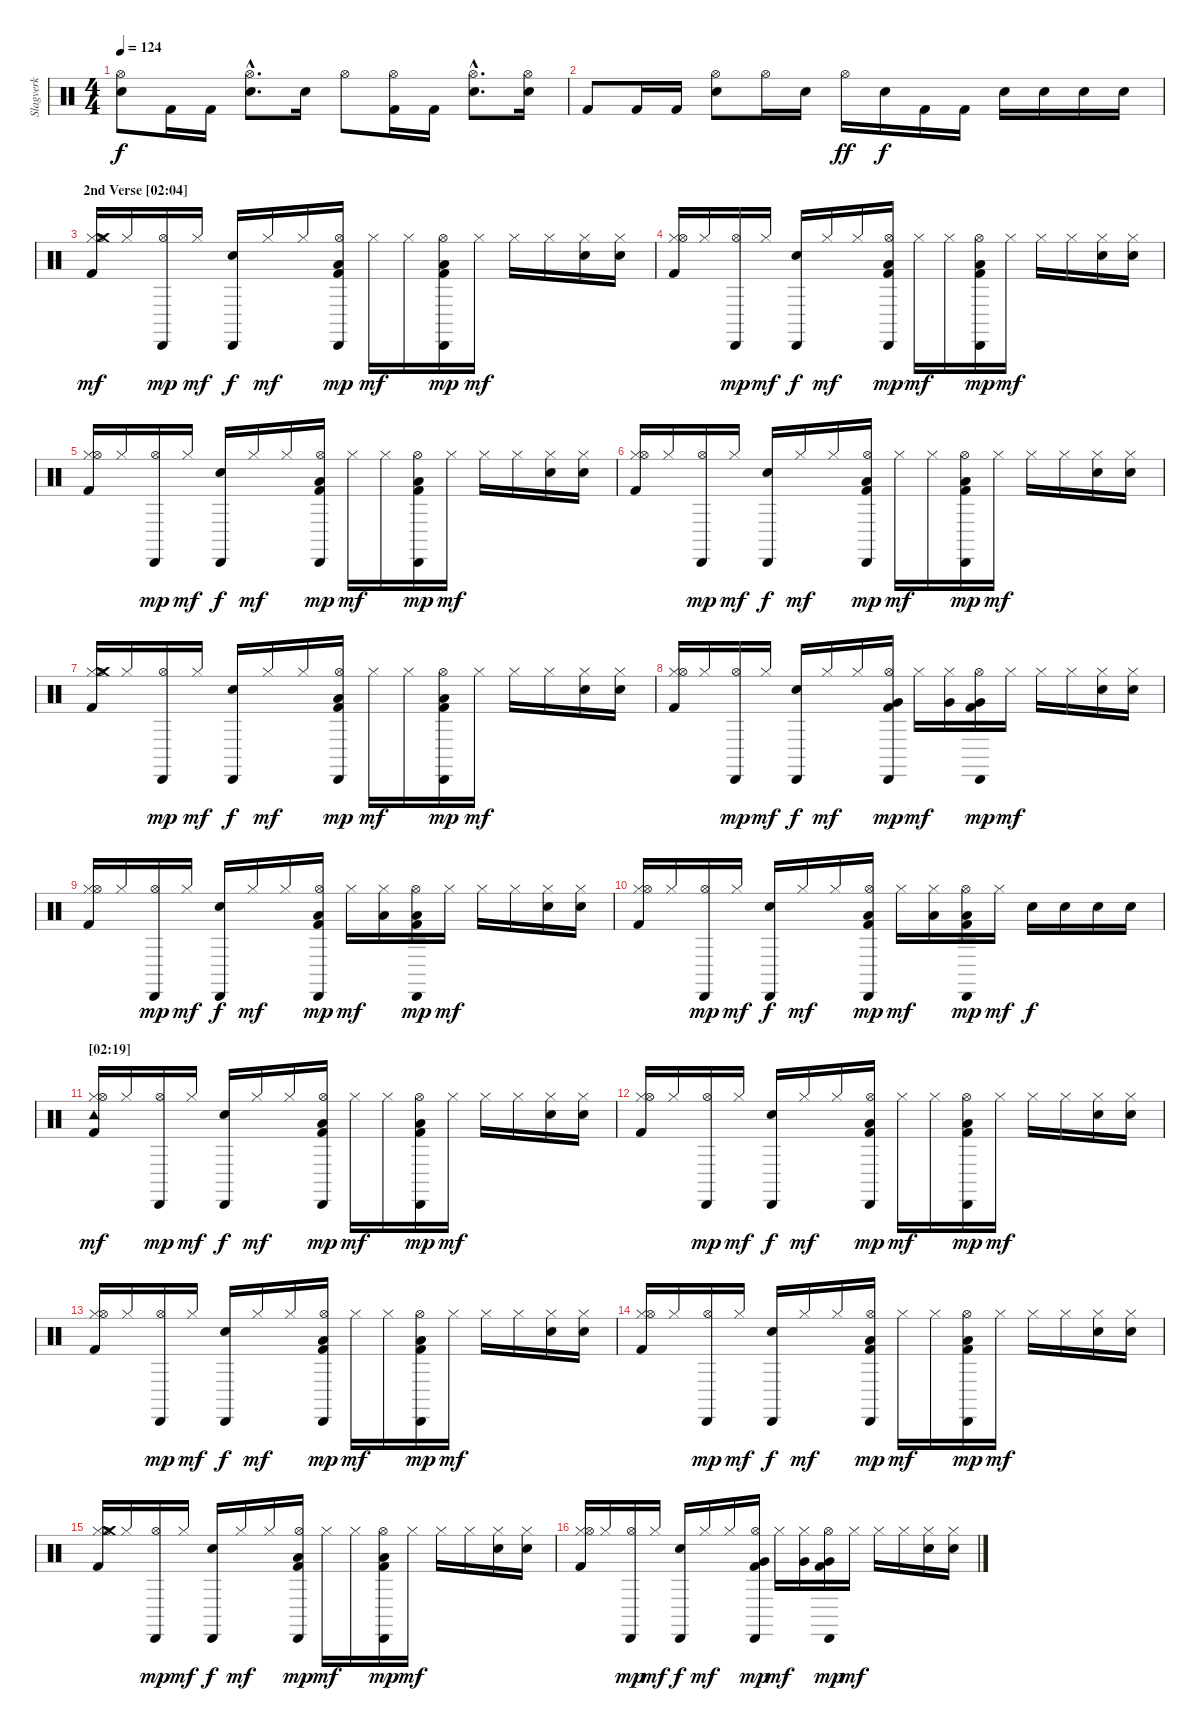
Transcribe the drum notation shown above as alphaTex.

\track ("Slagverk" "Slagverk") {instrument percussion}
\staff {score}
\articulation defaults
\ts (4 4)
\tempo 124
\clef neutral
\ks c
("Hi-Hat (open)" "Electric Snare (hit)").8{dy f} "Kick (hit) 2".16 "Kick (hit) 2".16 ("Hi-Hat (open)"{hac} "Electric Snare (hit)"{hac}).8{d} "Electric Snare (hit)".16 "Hi-Hat (open)".8 ("Hi-Hat (open)" "Kick (hit) 2").16 "Kick (hit) 2".16 ("Hi-Hat (open)"{hac} "Electric Snare (hit)"{hac}).8{d} ("Hi-Hat (open)" "Electric Snare (hit)").16 |
"Kick (hit) 2".8 "Kick (hit) 2".16 "Kick (hit) 2".16 ("Hi-Hat (open)" "Electric Snare (hit)").8 "Hi-Hat (open)".16 "Electric Snare (hit)".16 "Hi-Hat (open)".16{dy ff} "Electric Snare (hit)".16{dy f} "Kick (hit) 2".16 "Kick (hit) 2".16 "Electric Snare (hit)".16 "Electric Snare (hit)".16 "Electric Snare (hit)".16 "Electric Snare (hit)".16 |
\section ("" "2nd Verse [02:04]")
("Hi-Hat (closed)" "Crash medium (hit)" "Hi-Hat (open)" "Kick (hit) 2").16{dy mf} "Hi-Hat (closed)".16 ("Cabasa (hit)" "Hi-Hat (open)").16{dy mp} "Hi-Hat (closed)".16{dy mf} ("Cabasa (hit)" "Electric Snare (hit)").16{dy f} "Hi-Hat (closed)".16{dy mf} "Hi-Hat (closed)".16 ("Cabasa (hit)" "Hi-Hat (open)" "Kick (hit) 2" "Low Floor Tom (hit)").16{dy mp} "Hi-Hat (closed)".16{dy mf} "Hi-Hat (closed)".16 ("Cabasa (hit)" "Hi-Hat (open)" "Kick (hit) 2" "Low Floor Tom (hit)").16{dy mp} "Hi-Hat (closed)".16{dy mf} "Hi-Hat (closed)".16 "Hi-Hat (closed)".16 ("Hi-Hat (closed)" "Electric Snare (hit)").16 ("Hi-Hat (closed)" "Electric Snare (hit)").16 |
("Hi-Hat (closed)" "Hi-Hat (open)" "Kick (hit) 2").16 "Hi-Hat (closed)".16 ("Cabasa (hit)" "Hi-Hat (open)").16{dy mp} "Hi-Hat (closed)".16{dy mf} ("Cabasa (hit)" "Electric Snare (hit)").16{dy f} "Hi-Hat (closed)".16{dy mf} "Hi-Hat (closed)".16 ("Cabasa (hit)" "Hi-Hat (open)" "Kick (hit) 2" "Low Floor Tom (hit)").16{dy mp} "Hi-Hat (closed)".16{dy mf} "Hi-Hat (closed)".16 ("Cabasa (hit)" "Hi-Hat (open)" "Kick (hit) 2" "Low Floor Tom (hit)").16{dy mp} "Hi-Hat (closed)".16{dy mf} "Hi-Hat (closed)".16 "Hi-Hat (closed)".16 ("Hi-Hat (closed)" "Electric Snare (hit)").16 ("Hi-Hat (closed)" "Electric Snare (hit)").16 |
("Hi-Hat (closed)" "Hi-Hat (open)" "Kick (hit) 2").16 "Hi-Hat (closed)".16 ("Cabasa (hit)" "Hi-Hat (open)").16{dy mp} "Hi-Hat (closed)".16{dy mf} ("Cabasa (hit)" "Electric Snare (hit)").16{dy f} "Hi-Hat (closed)".16{dy mf} "Hi-Hat (closed)".16 ("Cabasa (hit)" "Hi-Hat (open)" "Kick (hit) 2" "Low Floor Tom (hit)").16{dy mp} "Hi-Hat (closed)".16{dy mf} "Hi-Hat (closed)".16 ("Cabasa (hit)" "Hi-Hat (open)" "Kick (hit) 2" "Low Floor Tom (hit)").16{dy mp} "Hi-Hat (closed)".16{dy mf} "Hi-Hat (closed)".16 "Hi-Hat (closed)".16 ("Hi-Hat (closed)" "Electric Snare (hit)").16 ("Hi-Hat (closed)" "Electric Snare (hit)").16 |
("Hi-Hat (closed)" "Hi-Hat (open)" "Kick (hit) 2").16 "Hi-Hat (closed)".16 ("Cabasa (hit)" "Hi-Hat (open)").16{dy mp} "Hi-Hat (closed)".16{dy mf} ("Cabasa (hit)" "Electric Snare (hit)").16{dy f} "Hi-Hat (closed)".16{dy mf} "Hi-Hat (closed)".16 ("Cabasa (hit)" "Hi-Hat (open)" "Kick (hit) 2" "Low Floor Tom (hit)").16{dy mp} "Hi-Hat (closed)".16{dy mf} "Hi-Hat (closed)".16 ("Cabasa (hit)" "Hi-Hat (open)" "Kick (hit) 2" "Low Floor Tom (hit)").16{dy mp} "Hi-Hat (closed)".16{dy mf} "Hi-Hat (closed)".16 "Hi-Hat (closed)".16 ("Hi-Hat (closed)" "Electric Snare (hit)").16 ("Hi-Hat (closed)" "Electric Snare (hit)").16 |
("Hi-Hat (closed)" "Crash medium (hit)" "Hi-Hat (open)" "Kick (hit) 2").16 "Hi-Hat (closed)".16 ("Cabasa (hit)" "Hi-Hat (open)").16{dy mp} "Hi-Hat (closed)".16{dy mf} ("Cabasa (hit)" "Electric Snare (hit)").16{dy f} "Hi-Hat (closed)".16{dy mf} "Hi-Hat (closed)".16 ("Cabasa (hit)" "Hi-Hat (open)" "Kick (hit) 2" "Low Floor Tom (hit)").16{dy mp} "Hi-Hat (closed)".16{dy mf} "Hi-Hat (closed)".16 ("Cabasa (hit)" "Hi-Hat (open)" "Kick (hit) 2" "Low Floor Tom (hit)").16{dy mp} "Hi-Hat (closed)".16{dy mf} "Hi-Hat (closed)".16 "Hi-Hat (closed)".16 ("Hi-Hat (closed)" "Electric Snare (hit)").16 ("Hi-Hat (closed)" "Electric Snare (hit)").16 |
("Hi-Hat (closed)" "Hi-Hat (open)" "Kick (hit) 2").16 "Hi-Hat (closed)".16 ("Cabasa (hit)" "Hi-Hat (open)").16{dy mp} "Hi-Hat (closed)".16{dy mf} ("Cabasa (hit)" "Electric Snare (hit)").16{dy f} "Hi-Hat (closed)".16{dy mf} "Hi-Hat (closed)".16 ("Cabasa (hit)" "Hi-Hat (open)" "Kick (hit) 2" "Very Low Tom (hit)").16{dy mp} "Hi-Hat (closed)".16{dy mf} ("Hi-Hat (closed)" "Very Low Tom (hit)").16 ("Cabasa (hit)" "Hi-Hat (open)" "Kick (hit) 2" "Very Low Tom (hit)").16{dy mp} "Hi-Hat (closed)".16{dy mf} "Hi-Hat (closed)".16 "Hi-Hat (closed)".16 ("Hi-Hat (closed)" "Electric Snare (hit)").16 ("Hi-Hat (closed)" "Electric Snare (hit)").16 |
("Hi-Hat (closed)" "Hi-Hat (open)" "Kick (hit) 2").16 "Hi-Hat (closed)".16 ("Cabasa (hit)" "Hi-Hat (open)").16{dy mp} "Hi-Hat (closed)".16{dy mf} ("Cabasa (hit)" "Electric Snare (hit)").16{dy f} "Hi-Hat (closed)".16{dy mf} "Hi-Hat (closed)".16 ("Cabasa (hit)" "Hi-Hat (open)" "Kick (hit) 2" "Low Tom (hit)").16{dy mp} "Hi-Hat (closed)".16{dy mf} ("Hi-Hat (closed)" "Low Tom (hit)").16 ("Cabasa (hit)" "Hi-Hat (open)" "Kick (hit) 2" "Low Tom (hit)").16{dy mp} "Hi-Hat (closed)".16{dy mf} "Hi-Hat (closed)".16 "Hi-Hat (closed)".16 ("Hi-Hat (closed)" "Electric Snare (hit)").16 ("Hi-Hat (closed)" "Electric Snare (hit)").16 |
("Hi-Hat (closed)" "Hi-Hat (open)" "Kick (hit) 2").16 "Hi-Hat (closed)".16 ("Cabasa (hit)" "Hi-Hat (open)").16{dy mp} "Hi-Hat (closed)".16{dy mf} ("Cabasa (hit)" "Electric Snare (hit)").16{dy f} "Hi-Hat (closed)".16{dy mf} "Hi-Hat (closed)".16 ("Cabasa (hit)" "Hi-Hat (open)" "Kick (hit) 2" "Low Tom (hit)").16{dy mp} "Hi-Hat (closed)".16{dy mf} ("Hi-Hat (closed)" "Low Tom (hit)").16 ("Cabasa (hit)" "Hi-Hat (open)" "Kick (hit) 2" "Low Tom (hit)").16{dy mp} "Hi-Hat (closed)".16{dy mf} "Electric Snare (hit)".16{dy f} "Electric Snare (hit)".16 "Electric Snare (hit)".16 "Electric Snare (hit)".16 |
\section ("" "[02:19]")
("Hi-Hat (closed)" "Tambourine (hit)" "Hi-Hat (open)" "Kick (hit) 2").16{dy mf} "Hi-Hat (closed)".16 ("Cabasa (hit)" "Hi-Hat (open)").16{dy mp} "Hi-Hat (closed)".16{dy mf} ("Cabasa (hit)" "Electric Snare (hit)").16{dy f} "Hi-Hat (closed)".16{dy mf} "Hi-Hat (closed)".16 ("Cabasa (hit)" "Hi-Hat (open)" "Kick (hit) 2" "Low Floor Tom (hit)").16{dy mp} "Hi-Hat (closed)".16{dy mf} "Hi-Hat (closed)".16 ("Cabasa (hit)" "Hi-Hat (open)" "Kick (hit) 2" "Low Floor Tom (hit)").16{dy mp} "Hi-Hat (closed)".16{dy mf} "Hi-Hat (closed)".16 "Hi-Hat (closed)".16 ("Hi-Hat (closed)" "Electric Snare (hit)").16 ("Hi-Hat (closed)" "Electric Snare (hit)").16 |
("Hi-Hat (closed)" "Hi-Hat (open)" "Kick (hit) 2").16 "Hi-Hat (closed)".16 ("Cabasa (hit)" "Hi-Hat (open)").16{dy mp} "Hi-Hat (closed)".16{dy mf} ("Cabasa (hit)" "Electric Snare (hit)").16{dy f} "Hi-Hat (closed)".16{dy mf} "Hi-Hat (closed)".16 ("Cabasa (hit)" "Hi-Hat (open)" "Kick (hit) 2" "Low Floor Tom (hit)").16{dy mp} "Hi-Hat (closed)".16{dy mf} "Hi-Hat (closed)".16 ("Cabasa (hit)" "Hi-Hat (open)" "Kick (hit) 2" "Low Floor Tom (hit)").16{dy mp} "Hi-Hat (closed)".16{dy mf} "Hi-Hat (closed)".16 "Hi-Hat (closed)".16 ("Hi-Hat (closed)" "Electric Snare (hit)").16 ("Hi-Hat (closed)" "Electric Snare (hit)").16 |
("Hi-Hat (closed)" "Hi-Hat (open)" "Kick (hit) 2").16 "Hi-Hat (closed)".16 ("Cabasa (hit)" "Hi-Hat (open)").16{dy mp} "Hi-Hat (closed)".16{dy mf} ("Cabasa (hit)" "Electric Snare (hit)").16{dy f} "Hi-Hat (closed)".16{dy mf} "Hi-Hat (closed)".16 ("Cabasa (hit)" "Hi-Hat (open)" "Kick (hit) 2" "Low Floor Tom (hit)").16{dy mp} "Hi-Hat (closed)".16{dy mf} "Hi-Hat (closed)".16 ("Cabasa (hit)" "Hi-Hat (open)" "Kick (hit) 2" "Low Floor Tom (hit)").16{dy mp} "Hi-Hat (closed)".16{dy mf} "Hi-Hat (closed)".16 "Hi-Hat (closed)".16 ("Hi-Hat (closed)" "Electric Snare (hit)").16 ("Hi-Hat (closed)" "Electric Snare (hit)").16 |
("Hi-Hat (closed)" "Hi-Hat (open)" "Kick (hit) 2").16 "Hi-Hat (closed)".16 ("Cabasa (hit)" "Hi-Hat (open)").16{dy mp} "Hi-Hat (closed)".16{dy mf} ("Cabasa (hit)" "Electric Snare (hit)").16{dy f} "Hi-Hat (closed)".16{dy mf} "Hi-Hat (closed)".16 ("Cabasa (hit)" "Hi-Hat (open)" "Kick (hit) 2" "Low Floor Tom (hit)").16{dy mp} "Hi-Hat (closed)".16{dy mf} "Hi-Hat (closed)".16 ("Cabasa (hit)" "Hi-Hat (open)" "Kick (hit) 2" "Low Floor Tom (hit)").16{dy mp} "Hi-Hat (closed)".16{dy mf} "Hi-Hat (closed)".16 "Hi-Hat (closed)".16 ("Hi-Hat (closed)" "Electric Snare (hit)").16 ("Hi-Hat (closed)" "Electric Snare (hit)").16 |
("Hi-Hat (closed)" "Crash medium (hit)" "Hi-Hat (open)" "Kick (hit) 2").16 "Hi-Hat (closed)".16 ("Cabasa (hit)" "Hi-Hat (open)").16{dy mp} "Hi-Hat (closed)".16{dy mf} ("Cabasa (hit)" "Electric Snare (hit)").16{dy f} "Hi-Hat (closed)".16{dy mf} "Hi-Hat (closed)".16 ("Cabasa (hit)" "Hi-Hat (open)" "Kick (hit) 2" "Low Floor Tom (hit)").16{dy mp} "Hi-Hat (closed)".16{dy mf} "Hi-Hat (closed)".16 ("Cabasa (hit)" "Hi-Hat (open)" "Kick (hit) 2" "Low Floor Tom (hit)").16{dy mp} "Hi-Hat (closed)".16{dy mf} "Hi-Hat (closed)".16 "Hi-Hat (closed)".16 ("Hi-Hat (closed)" "Electric Snare (hit)").16 ("Hi-Hat (closed)" "Electric Snare (hit)").16 |
("Hi-Hat (closed)" "Hi-Hat (open)" "Kick (hit) 2").16 "Hi-Hat (closed)".16 ("Cabasa (hit)" "Hi-Hat (open)").16{dy mp} "Hi-Hat (closed)".16{dy mf} ("Cabasa (hit)" "Electric Snare (hit)").16{dy f} "Hi-Hat (closed)".16{dy mf} "Hi-Hat (closed)".16 ("Cabasa (hit)" "Hi-Hat (open)" "Kick (hit) 2" "Very Low Tom (hit)").16{dy mp} "Hi-Hat (closed)".16{dy mf} ("Hi-Hat (closed)" "Very Low Tom (hit)").16 ("Cabasa (hit)" "Hi-Hat (open)" "Kick (hit) 2" "Very Low Tom (hit)").16{dy mp} "Hi-Hat (closed)".16{dy mf} "Hi-Hat (closed)".16 "Hi-Hat (closed)".16 ("Hi-Hat (closed)" "Electric Snare (hit)").16 ("Hi-Hat (closed)" "Electric Snare (hit)").16
